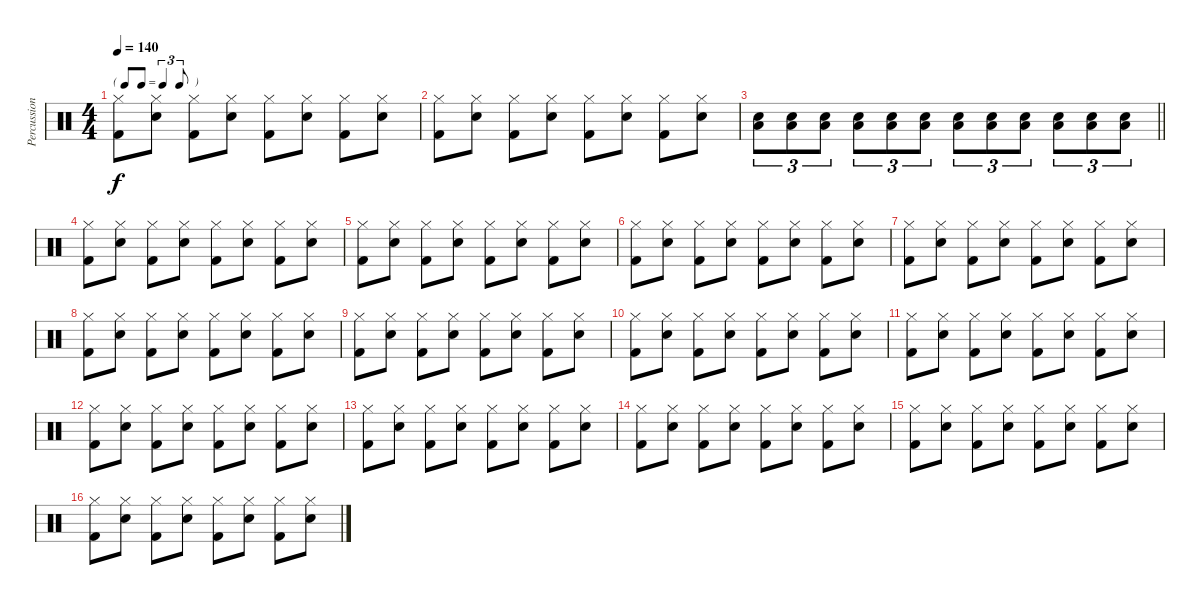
\track ("Percussion" "Percussion") {instrument percussion}
\staff {score}
\articulation defaults
\ts (4 4)
\tf triplet8th
\tempo 140
\clef neutral
\ks c
("Hi-Hat (closed)" "Kick (hit) 2").8{dy f} ("Hi-Hat (closed)" "Snare (hit) 2").8 ("Hi-Hat (closed)" "Kick (hit) 2").8 ("Hi-Hat (closed)" "Snare (hit) 2").8 ("Hi-Hat (closed)" "Kick (hit) 2").8 ("Hi-Hat (closed)" "Snare (hit) 2").8 ("Hi-Hat (closed)" "Kick (hit) 2").8 ("Hi-Hat (closed)" "Snare (hit) 2").8 |
("Hi-Hat (closed)" "Kick (hit) 2").8 ("Hi-Hat (closed)" "Snare (hit) 2").8 ("Hi-Hat (closed)" "Kick (hit) 2").8 ("Hi-Hat (closed)" "Snare (hit) 2").8 ("Hi-Hat (closed)" "Kick (hit) 2").8 ("Hi-Hat (closed)" "Snare (hit) 2").8 ("Hi-Hat (closed)" "Kick (hit) 2").8 ("Hi-Hat (closed)" "Snare (hit) 2").8 |
\barLineRight lightlight
("Low Floor Tom (hit)" "Snare (hit) 2").8{tu (3 2)} ("Low Floor Tom (hit)" "Snare (hit) 2").8{tu (3 2)} ("Low Floor Tom (hit)" "Snare (hit) 2").8{tu (3 2)} ("Low Floor Tom (hit)" "Snare (hit) 2").8{tu (3 2)} ("Low Floor Tom (hit)" "Snare (hit) 2").8{tu (3 2)} ("Low Floor Tom (hit)" "Snare (hit) 2").8{tu (3 2)} ("Low Floor Tom (hit)" "Snare (hit) 2").8{tu (3 2)} ("Low Floor Tom (hit)" "Snare (hit) 2").8{tu (3 2)} ("Low Floor Tom (hit)" "Snare (hit) 2").8{tu (3 2)} ("Low Floor Tom (hit)" "Snare (hit) 2").8{tu (3 2)} ("Low Floor Tom (hit)" "Snare (hit) 2").8{tu (3 2)} ("Low Floor Tom (hit)" "Snare (hit) 2").8{tu (3 2)} |
("Hi-Hat (closed)" "Kick (hit) 2").8 ("Hi-Hat (closed)" "Snare (hit) 2").8 ("Hi-Hat (closed)" "Kick (hit) 2").8 ("Hi-Hat (closed)" "Snare (hit) 2").8 ("Hi-Hat (closed)" "Kick (hit) 2").8 ("Hi-Hat (closed)" "Snare (hit) 2").8 ("Hi-Hat (closed)" "Kick (hit) 2").8 ("Hi-Hat (closed)" "Snare (hit) 2").8 |
("Hi-Hat (closed)" "Kick (hit) 2").8 ("Hi-Hat (closed)" "Snare (hit) 2").8 ("Hi-Hat (closed)" "Kick (hit) 2").8 ("Hi-Hat (closed)" "Snare (hit) 2").8 ("Hi-Hat (closed)" "Kick (hit) 2").8 ("Hi-Hat (closed)" "Snare (hit) 2").8 ("Hi-Hat (closed)" "Kick (hit) 2").8 ("Hi-Hat (closed)" "Snare (hit) 2").8 |
("Hi-Hat (closed)" "Kick (hit) 2").8 ("Hi-Hat (closed)" "Snare (hit) 2").8 ("Hi-Hat (closed)" "Kick (hit) 2").8 ("Hi-Hat (closed)" "Snare (hit) 2").8 ("Hi-Hat (closed)" "Kick (hit) 2").8 ("Hi-Hat (closed)" "Snare (hit) 2").8 ("Hi-Hat (closed)" "Kick (hit) 2").8 ("Hi-Hat (closed)" "Snare (hit) 2").8 |
("Hi-Hat (closed)" "Kick (hit) 2").8 ("Hi-Hat (closed)" "Snare (hit) 2").8 ("Hi-Hat (closed)" "Kick (hit) 2").8 ("Hi-Hat (closed)" "Snare (hit) 2").8 ("Hi-Hat (closed)" "Kick (hit) 2").8 ("Hi-Hat (closed)" "Snare (hit) 2").8 ("Hi-Hat (closed)" "Kick (hit) 2").8 ("Hi-Hat (closed)" "Snare (hit) 2").8 |
("Hi-Hat (closed)" "Kick (hit) 2").8 ("Hi-Hat (closed)" "Snare (hit) 2").8 ("Hi-Hat (closed)" "Kick (hit) 2").8 ("Hi-Hat (closed)" "Snare (hit) 2").8 ("Hi-Hat (closed)" "Kick (hit) 2").8 ("Hi-Hat (closed)" "Snare (hit) 2").8 ("Hi-Hat (closed)" "Kick (hit) 2").8 ("Hi-Hat (closed)" "Snare (hit) 2").8 |
("Hi-Hat (closed)" "Kick (hit) 2").8 ("Hi-Hat (closed)" "Snare (hit) 2").8 ("Hi-Hat (closed)" "Kick (hit) 2").8 ("Hi-Hat (closed)" "Snare (hit) 2").8 ("Hi-Hat (closed)" "Kick (hit) 2").8 ("Hi-Hat (closed)" "Snare (hit) 2").8 ("Hi-Hat (closed)" "Kick (hit) 2").8 ("Hi-Hat (closed)" "Snare (hit) 2").8 |
("Hi-Hat (closed)" "Kick (hit) 2").8 ("Hi-Hat (closed)" "Snare (hit) 2").8 ("Hi-Hat (closed)" "Kick (hit) 2").8 ("Hi-Hat (closed)" "Snare (hit) 2").8 ("Hi-Hat (closed)" "Kick (hit) 2").8 ("Hi-Hat (closed)" "Snare (hit) 2").8 ("Hi-Hat (closed)" "Kick (hit) 2").8 ("Hi-Hat (closed)" "Snare (hit) 2").8 |
("Hi-Hat (closed)" "Kick (hit) 2").8 ("Hi-Hat (closed)" "Snare (hit) 2").8 ("Hi-Hat (closed)" "Kick (hit) 2").8 ("Hi-Hat (closed)" "Snare (hit) 2").8 ("Hi-Hat (closed)" "Kick (hit) 2").8 ("Hi-Hat (closed)" "Snare (hit) 2").8 ("Hi-Hat (closed)" "Kick (hit) 2").8 ("Hi-Hat (closed)" "Snare (hit) 2").8 |
("Hi-Hat (closed)" "Kick (hit) 2").8 ("Hi-Hat (closed)" "Snare (hit) 2").8 ("Hi-Hat (closed)" "Kick (hit) 2").8 ("Hi-Hat (closed)" "Snare (hit) 2").8 ("Hi-Hat (closed)" "Kick (hit) 2").8 ("Hi-Hat (closed)" "Snare (hit) 2").8 ("Hi-Hat (closed)" "Kick (hit) 2").8 ("Hi-Hat (closed)" "Snare (hit) 2").8 |
("Hi-Hat (closed)" "Kick (hit) 2").8 ("Hi-Hat (closed)" "Snare (hit) 2").8 ("Hi-Hat (closed)" "Kick (hit) 2").8 ("Hi-Hat (closed)" "Snare (hit) 2").8 ("Hi-Hat (closed)" "Kick (hit) 2").8 ("Hi-Hat (closed)" "Snare (hit) 2").8 ("Hi-Hat (closed)" "Kick (hit) 2").8 ("Hi-Hat (closed)" "Snare (hit) 2").8 |
("Hi-Hat (closed)" "Kick (hit) 2").8 ("Hi-Hat (closed)" "Snare (hit) 2").8 ("Hi-Hat (closed)" "Kick (hit) 2").8 ("Hi-Hat (closed)" "Snare (hit) 2").8 ("Hi-Hat (closed)" "Kick (hit) 2").8 ("Hi-Hat (closed)" "Snare (hit) 2").8 ("Hi-Hat (closed)" "Kick (hit) 2").8 ("Hi-Hat (closed)" "Snare (hit) 2").8 |
("Hi-Hat (closed)" "Kick (hit) 2").8 ("Hi-Hat (closed)" "Snare (hit) 2").8 ("Hi-Hat (closed)" "Kick (hit) 2").8 ("Hi-Hat (closed)" "Snare (hit) 2").8 ("Hi-Hat (closed)" "Kick (hit) 2").8 ("Hi-Hat (closed)" "Snare (hit) 2").8 ("Hi-Hat (closed)" "Kick (hit) 2").8 ("Hi-Hat (closed)" "Snare (hit) 2").8 |
("Hi-Hat (closed)" "Kick (hit) 2").8 ("Hi-Hat (closed)" "Snare (hit) 2").8 ("Hi-Hat (closed)" "Kick (hit) 2").8 ("Hi-Hat (closed)" "Snare (hit) 2").8 ("Hi-Hat (closed)" "Kick (hit) 2").8 ("Hi-Hat (closed)" "Snare (hit) 2").8 ("Hi-Hat (closed)" "Kick (hit) 2").8 ("Hi-Hat (closed)" "Snare (hit) 2").8
